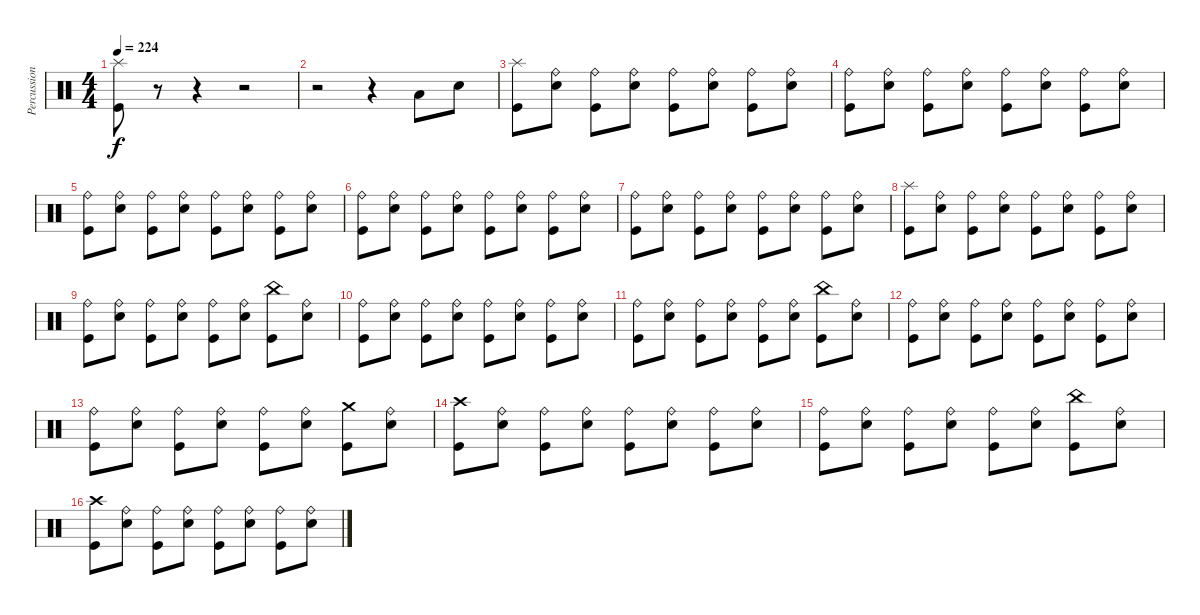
\track ("Percussions" "Percussion") {instrument percussion}
\staff {score}
\articulation defaults
\ts (4 4)
\tempo 224
\clef neutral
\ks c
("Kick (hit)" "Splash (hit)").8{dy f} r.8 r.4 r.2 |
r.2 r.4 "Low Floor Tom (hit)".8 "Electric Snare (hit)".8 |
("Kick (hit)" "Splash (hit)").8 ("Electric Snare (hit)" "Ride (bell)").8 ("Kick (hit)" "Ride (bell)").8 ("Electric Snare (hit)" "Ride (bell)").8 ("Kick (hit)" "Ride (bell)").8 ("Electric Snare (hit)" "Ride (bell)").8 ("Kick (hit)" "Ride (bell)").8 ("Electric Snare (hit)" "Ride (bell)").8 |
("Kick (hit)" "Ride (bell)").8 ("Electric Snare (hit)" "Ride (bell)").8 ("Kick (hit)" "Ride (bell)").8 ("Electric Snare (hit)" "Ride (bell)").8 ("Kick (hit)" "Ride (bell)").8 ("Electric Snare (hit)" "Ride (bell)").8 ("Kick (hit)" "Ride (bell)").8 ("Electric Snare (hit)" "Ride (bell)").8 |
("Kick (hit)" "Ride (bell)").8 ("Electric Snare (hit)" "Ride (bell)").8 ("Kick (hit)" "Ride (bell)").8 ("Electric Snare (hit)" "Ride (bell)").8 ("Kick (hit)" "Ride (bell)").8 ("Electric Snare (hit)" "Ride (bell)").8 ("Kick (hit)" "Ride (bell)").8 ("Electric Snare (hit)" "Ride (bell)").8 |
("Kick (hit)" "Ride (bell)").8 ("Electric Snare (hit)" "Ride (bell)").8 ("Kick (hit)" "Ride (bell)").8 ("Electric Snare (hit)" "Ride (bell)").8 ("Kick (hit)" "Ride (bell)").8 ("Electric Snare (hit)" "Ride (bell)").8 ("Kick (hit)" "Ride (bell)").8 ("Electric Snare (hit)" "Ride (bell)").8 |
("Kick (hit)" "Ride (bell)").8 ("Electric Snare (hit)" "Ride (bell)").8 ("Kick (hit)" "Ride (bell)").8 ("Electric Snare (hit)" "Ride (bell)").8 ("Kick (hit)" "Ride (bell)").8 ("Electric Snare (hit)" "Ride (bell)").8 ("Kick (hit)" "Ride (bell)").8 ("Electric Snare (hit)" "Ride (bell)").8 |
("Kick (hit)" "Splash (hit)").8 ("Electric Snare (hit)" "Ride (bell)").8 ("Kick (hit)" "Ride (bell)").8 ("Electric Snare (hit)" "Ride (bell)").8 ("Kick (hit)" "Ride (bell)").8 ("Electric Snare (hit)" "Ride (bell)").8 ("Kick (hit)" "Ride (bell)").8 ("Electric Snare (hit)" "Ride (bell)").8 |
("Kick (hit)" "Ride (bell)").8 ("Electric Snare (hit)" "Ride (bell)").8 ("Kick (hit)" "Ride (bell)").8 ("Electric Snare (hit)" "Ride (bell)").8 ("Kick (hit)" "Ride (bell)").8 ("Electric Snare (hit)" "Ride (bell)").8 ("Kick (hit)" "China (hit)").8 ("Electric Snare (hit)" "Ride (bell)").8 |
("Kick (hit)" "Ride (bell)").8 ("Electric Snare (hit)" "Ride (bell)").8 ("Kick (hit)" "Ride (bell)").8 ("Electric Snare (hit)" "Ride (bell)").8 ("Kick (hit)" "Ride (bell)").8 ("Electric Snare (hit)" "Ride (bell)").8 ("Kick (hit)" "Ride (bell)").8 ("Electric Snare (hit)" "Ride (bell)").8 |
("Kick (hit)" "Ride (bell)").8 ("Electric Snare (hit)" "Ride (bell)").8 ("Kick (hit)" "Ride (bell)").8 ("Electric Snare (hit)" "Ride (bell)").8 ("Kick (hit)" "Ride (bell)").8 ("Electric Snare (hit)" "Ride (bell)").8 ("Kick (hit)" "China (hit)").8 ("Electric Snare (hit)" "Ride (bell)").8 |
("Kick (hit)" "Ride (bell)").8 ("Electric Snare (hit)" "Ride (bell)").8 ("Kick (hit)" "Ride (bell)").8 ("Electric Snare (hit)" "Ride (bell)").8 ("Kick (hit)" "Ride (bell)").8 ("Electric Snare (hit)" "Ride (bell)").8 ("Kick (hit)" "Ride (bell)").8 ("Electric Snare (hit)" "Ride (bell)").8 |
("Kick (hit)" "Ride (bell)").8 ("Electric Snare (hit)" "Ride (bell)").8 ("Kick (hit)" "Ride (bell)").8 ("Electric Snare (hit)" "Ride (bell)").8 ("Kick (hit)" "Ride (bell)").8 ("Electric Snare (hit)" "Ride (bell)").8 ("Kick (hit)" "Crash medium (hit)").8 ("Electric Snare (hit)" "Ride (bell)").8 |
("Kick (hit)" "Crash high (hit)").8 ("Electric Snare (hit)" "Ride (bell)").8 ("Kick (hit)" "Ride (bell)").8 ("Electric Snare (hit)" "Ride (bell)").8 ("Kick (hit)" "Ride (bell)").8 ("Electric Snare (hit)" "Ride (bell)").8 ("Kick (hit)" "Ride (bell)").8 ("Electric Snare (hit)" "Ride (bell)").8 |
("Kick (hit)" "Ride (bell)").8 ("Electric Snare (hit)" "Ride (bell)").8 ("Kick (hit)" "Ride (bell)").8 ("Electric Snare (hit)" "Ride (bell)").8 ("Kick (hit)" "Ride (bell)").8 ("Electric Snare (hit)" "Ride (bell)").8 ("Kick (hit)" "China (hit)").8 ("Electric Snare (hit)" "Ride (bell)").8 |
("Kick (hit)" "Crash high (hit)").8 ("Electric Snare (hit)" "Ride (bell)").8 ("Kick (hit)" "Ride (bell)").8 ("Electric Snare (hit)" "Ride (bell)").8 ("Kick (hit)" "Ride (bell)").8 ("Electric Snare (hit)" "Ride (bell)").8 ("Kick (hit)" "Ride (bell)").8 ("Electric Snare (hit)" "Ride (bell)").8
